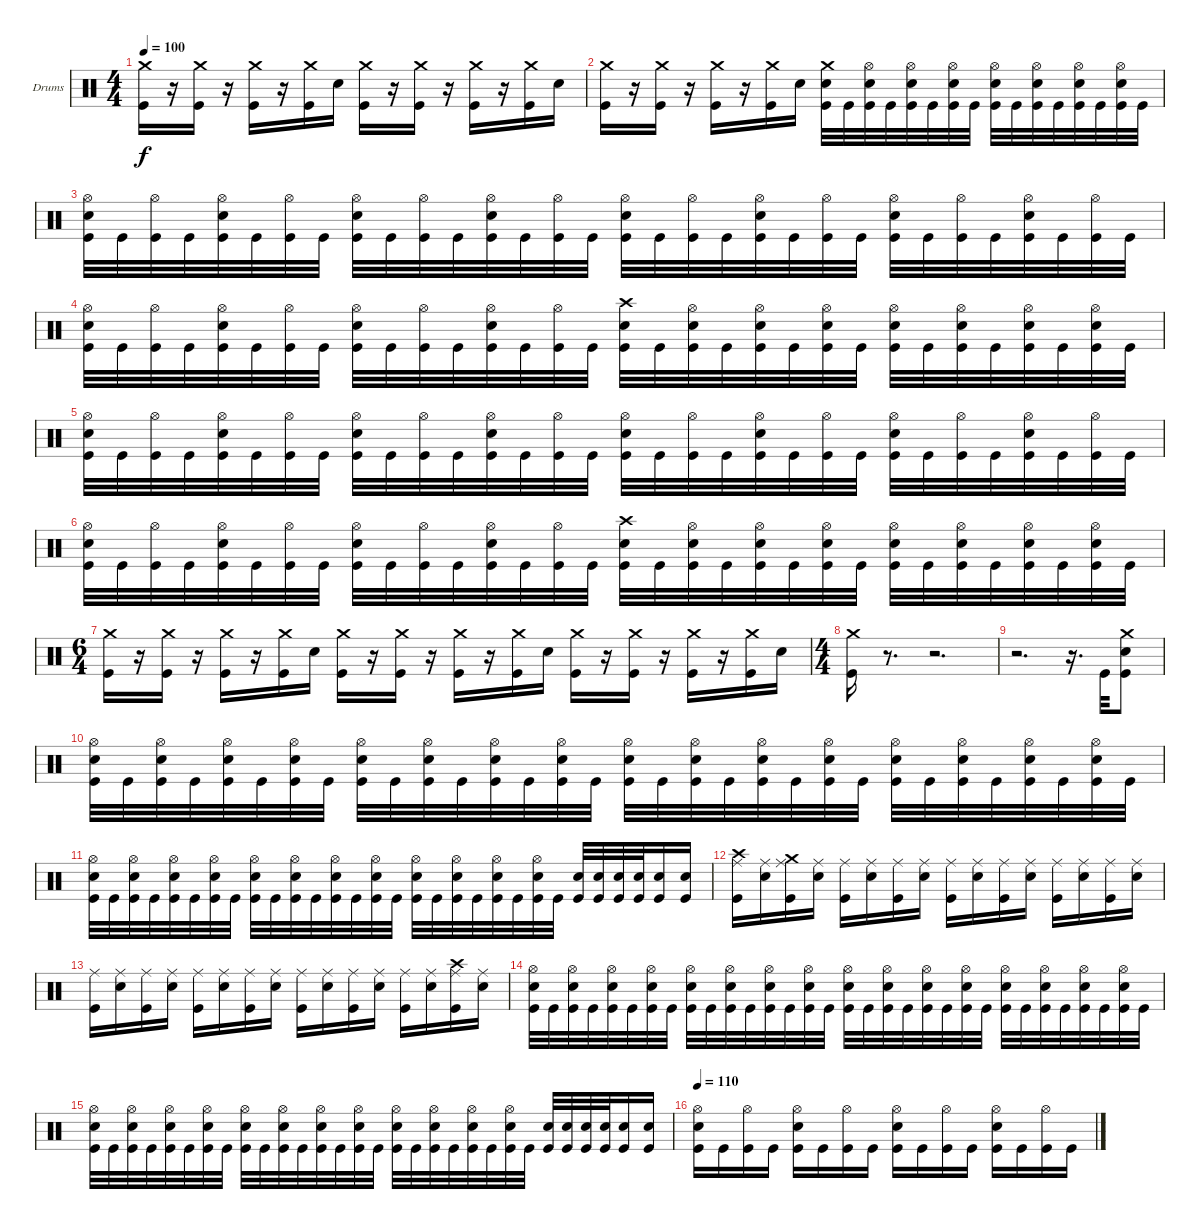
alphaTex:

\bracketExtendMode groupsimilarinstruments
\firstSystemTrackNameOrientation horizontal
\otherSystemsTrackNameOrientation horizontal
\track ("Drumkit" "Drums") {instrument percussion}
\staff {score}
\articulation defaults
\ts (4 4)
\tempo 100
\clef neutral
\ks c
("Crash medium (hit)" "Kick (hit)").16{dy f} r.16 ("Crash medium (hit)" "Kick (hit)").16 r.16 ("Crash medium (hit)" "Kick (hit)").16 r.16 ("Crash medium (hit)" "Kick (hit)").16 "Snare (hit) 2".16 ("Crash medium (hit)" "Kick (hit)").16 r.16 ("Crash medium (hit)" "Kick (hit)").16 r.16 ("Crash medium (hit)" "Kick (hit)").16 r.16 ("Crash medium (hit)" "Kick (hit)").16 "Snare (hit) 2".16 |
("Crash medium (hit)" "Kick (hit)").16 r.16 ("Crash medium (hit)" "Kick (hit)").16 r.16 ("Crash medium (hit)" "Kick (hit)").16 r.16 ("Crash medium (hit)" "Kick (hit)").16 "Snare (hit) 2".16 ("Crash medium (hit)" "Snare (hit) 2" "Kick (hit)").32 "Kick (hit)".32 ("Hi-Hat (open)" "Snare (hit) 2" "Kick (hit)").32 "Kick (hit)".32 ("Hi-Hat (open)" "Snare (hit) 2" "Kick (hit)").32 "Kick (hit)".32 ("Hi-Hat (open)" "Snare (hit) 2" "Kick (hit)").32 "Kick (hit)".32 ("Hi-Hat (open)" "Snare (hit) 2" "Kick (hit)").32 "Kick (hit)".32 ("Hi-Hat (open)" "Snare (hit) 2" "Kick (hit)").32 "Kick (hit)".32 ("Hi-Hat (open)" "Snare (hit) 2" "Kick (hit)").32 "Kick (hit)".32 ("Hi-Hat (open)" "Snare (hit) 2" "Kick (hit)").32 "Kick (hit)".32 |
("Hi-Hat (open)" "Snare (hit) 2" "Kick (hit)").32 "Kick (hit)".32 ("Hi-Hat (open)" "Kick (hit)").32 "Kick (hit)".32 ("Hi-Hat (open)" "Snare (hit) 2" "Kick (hit)").32 "Kick (hit)".32 ("Hi-Hat (open)" "Kick (hit)").32 "Kick (hit)".32 ("Hi-Hat (open)" "Snare (hit) 2" "Kick (hit)").32 "Kick (hit)".32 ("Hi-Hat (open)" "Kick (hit)").32 "Kick (hit)".32 ("Hi-Hat (open)" "Snare (hit) 2" "Kick (hit)").32 "Kick (hit)".32 ("Hi-Hat (open)" "Kick (hit)").32 "Kick (hit)".32 ("Hi-Hat (open)" "Snare (hit) 2" "Kick (hit)").32 "Kick (hit)".32 ("Hi-Hat (open)" "Kick (hit)").32 "Kick (hit)".32 ("Hi-Hat (open)" "Snare (hit) 2" "Kick (hit)").32 "Kick (hit)".32 ("Hi-Hat (open)" "Kick (hit)").32 "Kick (hit)".32 ("Hi-Hat (open)" "Snare (hit) 2" "Kick (hit)").32 "Kick (hit)".32 ("Hi-Hat (open)" "Kick (hit)").32 "Kick (hit)".32 ("Hi-Hat (open)" "Snare (hit) 2" "Kick (hit)").32 "Kick (hit)".32 ("Hi-Hat (open)" "Kick (hit)").32 "Kick (hit)".32 |
("Hi-Hat (open)" "Snare (hit) 2" "Kick (hit)").32 "Kick (hit)".32 ("Hi-Hat (open)" "Kick (hit)").32 "Kick (hit)".32 ("Hi-Hat (open)" "Snare (hit) 2" "Kick (hit)").32 "Kick (hit)".32 ("Hi-Hat (open)" "Kick (hit)").32 "Kick (hit)".32 ("Hi-Hat (open)" "Snare (hit) 2" "Kick (hit)").32 "Kick (hit)".32 ("Hi-Hat (open)" "Kick (hit)").32 "Kick (hit)".32 ("Hi-Hat (open)" "Snare (hit) 2" "Kick (hit)").32 "Kick (hit)".32 ("Hi-Hat (open)" "Kick (hit)").32 "Kick (hit)".32 ("Crash high (hit)" "Snare (hit) 2" "Kick (hit)").32 "Kick (hit)".32 ("Hi-Hat (open)" "Snare (hit) 2" "Kick (hit)").32 "Kick (hit)".32 ("Hi-Hat (open)" "Snare (hit) 2" "Kick (hit)").32 "Kick (hit)".32 ("Hi-Hat (open)" "Snare (hit) 2" "Kick (hit)").32 "Kick (hit)".32 ("Hi-Hat (open)" "Snare (hit) 2" "Kick (hit)").32 "Kick (hit)".32 ("Hi-Hat (open)" "Snare (hit) 2" "Kick (hit)").32 "Kick (hit)".32 ("Hi-Hat (open)" "Snare (hit) 2" "Kick (hit)").32 "Kick (hit)".32 ("Hi-Hat (open)" "Snare (hit) 2" "Kick (hit)").32 "Kick (hit)".32 |
("Hi-Hat (open)" "Snare (hit) 2" "Kick (hit)").32 "Kick (hit)".32 ("Hi-Hat (open)" "Kick (hit)").32 "Kick (hit)".32 ("Hi-Hat (open)" "Snare (hit) 2" "Kick (hit)").32 "Kick (hit)".32 ("Hi-Hat (open)" "Kick (hit)").32 "Kick (hit)".32 ("Hi-Hat (open)" "Snare (hit) 2" "Kick (hit)").32 "Kick (hit)".32 ("Hi-Hat (open)" "Kick (hit)").32 "Kick (hit)".32 ("Hi-Hat (open)" "Snare (hit) 2" "Kick (hit)").32 "Kick (hit)".32 ("Hi-Hat (open)" "Kick (hit)").32 "Kick (hit)".32 ("Hi-Hat (open)" "Snare (hit) 2" "Kick (hit)").32 "Kick (hit)".32 ("Hi-Hat (open)" "Kick (hit)").32 "Kick (hit)".32 ("Hi-Hat (open)" "Snare (hit) 2" "Kick (hit)").32 "Kick (hit)".32 ("Hi-Hat (open)" "Kick (hit)").32 "Kick (hit)".32 ("Hi-Hat (open)" "Snare (hit) 2" "Kick (hit)").32 "Kick (hit)".32 ("Hi-Hat (open)" "Kick (hit)").32 "Kick (hit)".32 ("Hi-Hat (open)" "Snare (hit) 2" "Kick (hit)").32 "Kick (hit)".32 ("Hi-Hat (open)" "Kick (hit)").32 "Kick (hit)".32 |
("Hi-Hat (open)" "Snare (hit) 2" "Kick (hit)").32 "Kick (hit)".32 ("Hi-Hat (open)" "Kick (hit)").32 "Kick (hit)".32 ("Hi-Hat (open)" "Snare (hit) 2" "Kick (hit)").32 "Kick (hit)".32 ("Hi-Hat (open)" "Kick (hit)").32 "Kick (hit)".32 ("Hi-Hat (open)" "Snare (hit) 2" "Kick (hit)").32 "Kick (hit)".32 ("Hi-Hat (open)" "Kick (hit)").32 "Kick (hit)".32 ("Hi-Hat (open)" "Snare (hit) 2" "Kick (hit)").32 "Kick (hit)".32 ("Hi-Hat (open)" "Kick (hit)").32 "Kick (hit)".32 ("Crash high (hit)" "Snare (hit) 2" "Kick (hit)").32 "Kick (hit)".32 ("Hi-Hat (open)" "Snare (hit) 2" "Kick (hit)").32 "Kick (hit)".32 ("Hi-Hat (open)" "Snare (hit) 2" "Kick (hit)").32 "Kick (hit)".32 ("Hi-Hat (open)" "Snare (hit) 2" "Kick (hit)").32 "Kick (hit)".32 ("Hi-Hat (open)" "Snare (hit) 2" "Kick (hit)").32 "Kick (hit)".32 ("Hi-Hat (open)" "Snare (hit) 2" "Kick (hit)").32 "Kick (hit)".32 ("Hi-Hat (open)" "Snare (hit) 2" "Kick (hit)").32 "Kick (hit)".32 ("Hi-Hat (open)" "Snare (hit) 2" "Kick (hit)").32 "Kick (hit)".32 |
\ts (6 4)
("Crash medium (hit)" "Kick (hit)").16 r.16 ("Crash medium (hit)" "Kick (hit)").16 r.16 ("Crash medium (hit)" "Kick (hit)").16 r.16 ("Crash medium (hit)" "Kick (hit)").16 "Snare (hit) 2".16 ("Crash medium (hit)" "Kick (hit)").16 r.16 ("Crash medium (hit)" "Kick (hit)").16 r.16 ("Crash medium (hit)" "Kick (hit)").16 r.16 ("Crash medium (hit)" "Kick (hit)").16 "Snare (hit) 2".16 ("Crash medium (hit)" "Kick (hit)").16 r.16 ("Crash medium (hit)" "Kick (hit)").16 r.16 ("Crash medium (hit)" "Kick (hit)").16 r.16 ("Crash medium (hit)" "Kick (hit)").16 "Snare (hit) 2".16 |
\ts (4 4)
("Crash medium (hit)" "Kick (hit)").16 r.8{d} r.2{d} |
r.2{d} r.16{d} "Kick (hit)".32 ("Crash medium (hit)" "Snare (hit) 2" "Kick (hit)").8 |
("Hi-Hat (open)" "Snare (hit) 2" "Kick (hit)").32 "Kick (hit)".32 ("Hi-Hat (open)" "Snare (hit) 2" "Kick (hit)").32 "Kick (hit)".32 ("Hi-Hat (open)" "Snare (hit) 2" "Kick (hit)").32 "Kick (hit)".32 ("Hi-Hat (open)" "Snare (hit) 2" "Kick (hit)").32 "Kick (hit)".32 ("Hi-Hat (open)" "Snare (hit) 2" "Kick (hit)").32 "Kick (hit)".32 ("Hi-Hat (open)" "Snare (hit) 2" "Kick (hit)").32 "Kick (hit)".32 ("Hi-Hat (open)" "Snare (hit) 2" "Kick (hit)").32 "Kick (hit)".32 ("Hi-Hat (open)" "Snare (hit) 2" "Kick (hit)").32 "Kick (hit)".32 ("Hi-Hat (open)" "Snare (hit) 2" "Kick (hit)").32 "Kick (hit)".32 ("Hi-Hat (open)" "Snare (hit) 2" "Kick (hit)").32 "Kick (hit)".32 ("Hi-Hat (open)" "Snare (hit) 2" "Kick (hit)").32 "Kick (hit)".32 ("Hi-Hat (open)" "Snare (hit) 2" "Kick (hit)").32 "Kick (hit)".32 ("Hi-Hat (open)" "Snare (hit) 2" "Kick (hit)").32 "Kick (hit)".32 ("Hi-Hat (open)" "Snare (hit) 2" "Kick (hit)").32 "Kick (hit)".32 ("Hi-Hat (open)" "Snare (hit) 2" "Kick (hit)").32 "Kick (hit)".32 ("Hi-Hat (open)" "Snare (hit) 2" "Kick (hit)").32 "Kick (hit)".32 |
("Hi-Hat (open)" "Snare (hit) 2" "Kick (hit)").32 "Kick (hit)".32 ("Hi-Hat (open)" "Snare (hit) 2" "Kick (hit)").32 "Kick (hit)".32 ("Hi-Hat (open)" "Snare (hit) 2" "Kick (hit)").32 "Kick (hit)".32 ("Hi-Hat (open)" "Snare (hit) 2" "Kick (hit)").32 "Kick (hit)".32 ("Hi-Hat (open)" "Snare (hit) 2" "Kick (hit)").32 "Kick (hit)".32 ("Hi-Hat (open)" "Snare (hit) 2" "Kick (hit)").32 "Kick (hit)".32 ("Hi-Hat (open)" "Snare (hit) 2" "Kick (hit)").32 "Kick (hit)".32 ("Hi-Hat (open)" "Snare (hit) 2" "Kick (hit)").32 "Kick (hit)".32 ("Hi-Hat (open)" "Snare (hit) 2" "Kick (hit)").32 "Kick (hit)".32 ("Hi-Hat (open)" "Snare (hit) 2" "Kick (hit)").32 "Kick (hit)".32 ("Hi-Hat (open)" "Snare (hit) 2" "Kick (hit)").32 "Kick (hit)".32 ("Hi-Hat (open)" "Snare (hit) 2" "Kick (hit)").32 "Kick (hit)".32 ("Snare (hit) 2" "Kick (hit)").32 ("Snare (hit) 2" "Kick (hit)").32 ("Snare (hit) 2" "Kick (hit)").32 ("Snare (hit) 2" "Kick (hit)").32 ("Snare (hit) 2" "Kick (hit)").16 ("Snare (hit) 2" "Kick (hit)").16 |
("Crash high (hit)" "Ride (middle)" "Kick (hit)").16 ("Ride (middle)" "Snare (hit) 2").16 ("Crash medium (hit)" "Ride (middle)" "Kick (hit)").16 ("Ride (middle)" "Snare (hit) 2").16 ("Ride (middle)" "Kick (hit)").16 ("Ride (middle)" "Snare (hit) 2").16 ("Ride (middle)" "Kick (hit)").16 ("Ride (middle)" "Snare (hit) 2").16 ("Ride (middle)" "Kick (hit)").16 ("Ride (middle)" "Snare (hit) 2").16 ("Ride (middle)" "Kick (hit)").16 ("Ride (middle)" "Snare (hit) 2").16 ("Ride (middle)" "Kick (hit)").16 ("Ride (middle)" "Snare (hit) 2").16 ("Ride (middle)" "Kick (hit)").16 ("Ride (middle)" "Snare (hit) 2").16 |
("Ride (middle)" "Kick (hit)").16 ("Ride (middle)" "Snare (hit) 2").16 ("Ride (middle)" "Kick (hit)").16 ("Ride (middle)" "Snare (hit) 2").16 ("Ride (middle)" "Kick (hit)").16 ("Ride (middle)" "Snare (hit) 2").16 ("Ride (middle)" "Kick (hit)").16 ("Ride (middle)" "Snare (hit) 2").16 ("Ride (middle)" "Kick (hit)").16 ("Ride (middle)" "Snare (hit) 2").16 ("Ride (middle)" "Kick (hit)").16 ("Ride (middle)" "Snare (hit) 2").16 ("Ride (middle)" "Kick (hit)").16 ("Ride (middle)" "Snare (hit) 2").16 ("Crash high (hit)" "Ride (middle)" "Kick (hit)").16 ("Ride (middle)" "Snare (hit) 2").16 |
("Hi-Hat (open)" "Snare (hit) 2" "Kick (hit)").32 "Kick (hit)".32 ("Hi-Hat (open)" "Snare (hit) 2" "Kick (hit)").32 "Kick (hit)".32 ("Hi-Hat (open)" "Snare (hit) 2" "Kick (hit)").32 "Kick (hit)".32 ("Hi-Hat (open)" "Snare (hit) 2" "Kick (hit)").32 "Kick (hit)".32 ("Hi-Hat (open)" "Snare (hit) 2" "Kick (hit)").32 "Kick (hit)".32 ("Hi-Hat (open)" "Snare (hit) 2" "Kick (hit)").32 "Kick (hit)".32 ("Hi-Hat (open)" "Snare (hit) 2" "Kick (hit)").32 "Kick (hit)".32 ("Hi-Hat (open)" "Snare (hit) 2" "Kick (hit)").32 "Kick (hit)".32 ("Hi-Hat (open)" "Snare (hit) 2" "Kick (hit)").32 "Kick (hit)".32 ("Hi-Hat (open)" "Snare (hit) 2" "Kick (hit)").32 "Kick (hit)".32 ("Hi-Hat (open)" "Snare (hit) 2" "Kick (hit)").32 "Kick (hit)".32 ("Hi-Hat (open)" "Snare (hit) 2" "Kick (hit)").32 "Kick (hit)".32 ("Hi-Hat (open)" "Snare (hit) 2" "Kick (hit)").32 "Kick (hit)".32 ("Hi-Hat (open)" "Snare (hit) 2" "Kick (hit)").32 "Kick (hit)".32 ("Hi-Hat (open)" "Snare (hit) 2" "Kick (hit)").32 "Kick (hit)".32 ("Hi-Hat (open)" "Snare (hit) 2" "Kick (hit)").32 "Kick (hit)".32 |
("Hi-Hat (open)" "Snare (hit) 2" "Kick (hit)").32 "Kick (hit)".32 ("Hi-Hat (open)" "Snare (hit) 2" "Kick (hit)").32 "Kick (hit)".32 ("Hi-Hat (open)" "Snare (hit) 2" "Kick (hit)").32 "Kick (hit)".32 ("Hi-Hat (open)" "Snare (hit) 2" "Kick (hit)").32 "Kick (hit)".32 ("Hi-Hat (open)" "Snare (hit) 2" "Kick (hit)").32 "Kick (hit)".32 ("Hi-Hat (open)" "Snare (hit) 2" "Kick (hit)").32 "Kick (hit)".32 ("Hi-Hat (open)" "Snare (hit) 2" "Kick (hit)").32 "Kick (hit)".32 ("Hi-Hat (open)" "Snare (hit) 2" "Kick (hit)").32 "Kick (hit)".32 ("Hi-Hat (open)" "Snare (hit) 2" "Kick (hit)").32 "Kick (hit)".32 ("Hi-Hat (open)" "Snare (hit) 2" "Kick (hit)").32 "Kick (hit)".32 ("Hi-Hat (open)" "Snare (hit) 2" "Kick (hit)").32 "Kick (hit)".32 ("Hi-Hat (open)" "Snare (hit) 2" "Kick (hit)").32 "Kick (hit)".32 ("Snare (hit) 2" "Kick (hit)").32 ("Snare (hit) 2" "Kick (hit)").32 ("Snare (hit) 2" "Kick (hit)").32 ("Snare (hit) 2" "Kick (hit)").32 ("Snare (hit) 2" "Kick (hit)").16 ("Snare (hit) 2" "Kick (hit)").16 |
\tempo 110
("Hi-Hat (open)" "Snare (hit) 2" "Kick (hit)").16 "Kick (hit)".16 ("Hi-Hat (open)" "Kick (hit)").16 "Kick (hit)".16 ("Hi-Hat (open)" "Snare (hit) 2" "Kick (hit)").16 "Kick (hit)".16 ("Hi-Hat (open)" "Kick (hit)").16 "Kick (hit)".16 ("Hi-Hat (open)" "Snare (hit) 2" "Kick (hit)").16 "Kick (hit)".16 ("Hi-Hat (open)" "Kick (hit)").16 "Kick (hit)".16 ("Hi-Hat (open)" "Snare (hit) 2" "Kick (hit)").16 "Kick (hit)".16 ("Hi-Hat (open)" "Kick (hit)").16 "Kick (hit)".16
